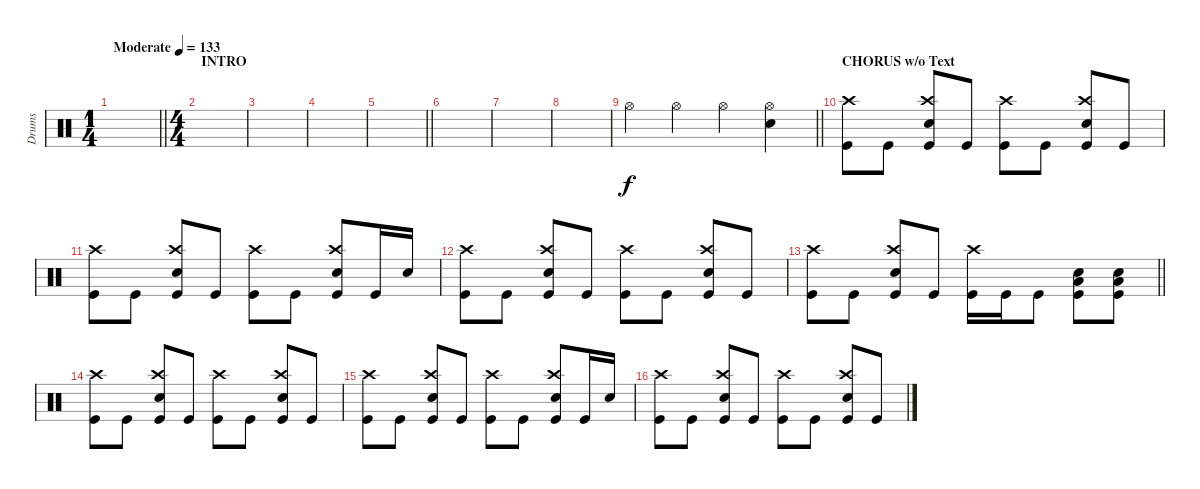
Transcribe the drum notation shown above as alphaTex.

\track ("Drums" "Drums") {instrument percussion}
\staff
\articulation defaults
\ts (1 4)
\tempo (133 "Moderate")
\clef neutral
\barLineRight lightlight
\ks c
|
\ts (4 4)
\section ("" "INTRO")
|
|
|
\barLineRight lightlight
|
|
|
|
\barLineRight lightlight "Hi-Hat (open)".4 "Hi-Hat (open)".4 "Hi-Hat (open)".4
("Hi-Hat (open)" "Electric Snare (hit)").4 |
\section ("" "CHORUS w/o Text")
("Crash high (hit)" "Kick (hit)").8 "Kick (hit)".8 ("Crash high (hit)" "Electric Snare (hit)" "Kick (hit)").8 "Kick (hit)".8 ("Crash high (hit)" "Kick (hit)").8 "Kick (hit)".8 ("Crash high (hit)" "Electric Snare (hit)" "Kick (hit)").8 "Kick (hit)".8 |
("Crash high (hit)" "Kick (hit)").8 "Kick (hit)".8 ("Crash high (hit)" "Electric Snare (hit)" "Kick (hit)").8 "Kick (hit)".8 ("Crash high (hit)" "Kick (hit)").8 "Kick (hit)".8 ("Crash high (hit)" "Electric Snare (hit)" "Kick (hit)").8 "Kick (hit)".16 "Electric Snare (hit)".16 |
("Crash high (hit)" "Kick (hit)").8 "Kick (hit)".8 ("Crash high (hit)" "Electric Snare (hit)" "Kick (hit)").8 "Kick (hit)".8 ("Crash high (hit)" "Kick (hit)").8 "Kick (hit)".8 ("Crash high (hit)" "Electric Snare (hit)" "Kick (hit)").8 "Kick (hit)".8 |
\barLineRight lightlight
("Crash high (hit)" "Kick (hit)").8 "Kick (hit)".8 ("Crash high (hit)" "Electric Snare (hit)" "Kick (hit)").8 "Kick (hit)".8 ("Crash high (hit)" "Kick (hit)").16 "Kick (hit)".16 "Kick (hit)".8 ("Low Floor Tom (hit)" "Electric Snare (hit)" "Kick (hit)").8 ("Low Floor Tom (hit)" "Electric Snare (hit)" "Kick (hit)").8 |
("Crash high (hit)" "Kick (hit)").8 "Kick (hit)".8 ("Crash high (hit)" "Electric Snare (hit)" "Kick (hit)").8 "Kick (hit)".8 ("Crash high (hit)" "Kick (hit)").8 "Kick (hit)".8 ("Crash high (hit)" "Electric Snare (hit)" "Kick (hit)").8 "Kick (hit)".8 |
("Crash high (hit)" "Kick (hit)").8 "Kick (hit)".8 ("Crash high (hit)" "Electric Snare (hit)" "Kick (hit)").8 "Kick (hit)".8 ("Crash high (hit)" "Kick (hit)").8 "Kick (hit)".8 ("Crash high (hit)" "Electric Snare (hit)" "Kick (hit)").8 "Kick (hit)".16 "Electric Snare (hit)".16 |
("Crash high (hit)" "Kick (hit)").8 "Kick (hit)".8 ("Crash high (hit)" "Electric Snare (hit)" "Kick (hit)").8 "Kick (hit)".8 ("Crash high (hit)" "Kick (hit)").8 "Kick (hit)".8 ("Crash high (hit)" "Electric Snare (hit)" "Kick (hit)").8 "Kick (hit)".8
